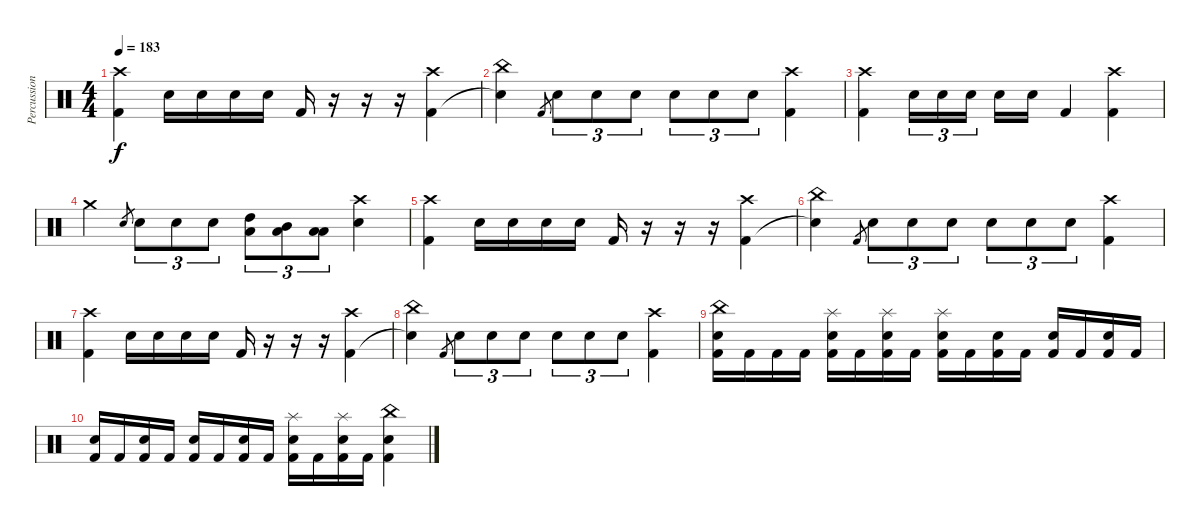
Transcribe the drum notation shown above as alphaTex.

\track ("Percussion" "Percussion") {instrument percussion}
\staff {score}
\articulation defaults
\ts (4 4)
\tempo 183
\clef neutral
\ks c
("Crash high (hit)" "Kick (hit) 2").4{dy f} "Electric Snare (hit)".16 "Electric Snare (hit)".16 "Electric Snare (hit)".16 "Electric Snare (hit)".16 "Kick (hit) 2".16 r.16 r.16 r.16 ("Crash high (hit)" "Kick (hit) 2").4 |
("China (hit)" "Snare (hit)"{t}).4 "Kick (hit) 2".8{gr} "Electric Snare (hit)".8{tu (3 2)} "Electric Snare (hit)".8{tu (3 2)} "Electric Snare (hit)".8{tu (3 2)} "Electric Snare (hit)".8{tu (3 2)} "Electric Snare (hit)".8{tu (3 2)} "Electric Snare (hit)".8{tu (3 2)} ("Crash high (hit)" "Kick (hit) 2").4 |
("Crash high (hit)" "Kick (hit) 2").4 "Electric Snare (hit)".16{tu (3 2)} "Electric Snare (hit)".16{tu (3 2)} "Electric Snare (hit)".16{tu (3 2)} "Electric Snare (hit)".16 "Electric Snare (hit)".16 "Kick (hit) 2".4 ("Crash high (hit)" "Kick (hit) 2").4 |
"Crash medium (hit)".4 "Electric Snare (hit)".8{gr} "Electric Snare (hit)".8{tu (3 2)} "Electric Snare (hit)".8{tu (3 2)} "Electric Snare (hit)".8{tu (3 2)} ("High Tom (hit)" "Low Floor Tom (hit)").8{tu (3 2)} ("Mid Tom (hit)" "Low Floor Tom (hit)").8{tu (3 2)} ("Low Tom (hit)" "Low Floor Tom (hit)").8{tu (3 2)} ("Crash high (hit)" "Electric Snare (hit)").4 |
("Crash high (hit)" "Kick (hit) 2").4 "Electric Snare (hit)".16 "Electric Snare (hit)".16 "Electric Snare (hit)".16 "Electric Snare (hit)".16 "Kick (hit) 2".16 r.16 r.16 r.16 ("Crash high (hit)" "Kick (hit) 2").4 |
("China (hit)" "Snare (hit)"{t}).4 "Kick (hit) 2".8{gr} "Electric Snare (hit)".8{tu (3 2)} "Electric Snare (hit)".8{tu (3 2)} "Electric Snare (hit)".8{tu (3 2)} "Electric Snare (hit)".8{tu (3 2)} "Electric Snare (hit)".8{tu (3 2)} "Electric Snare (hit)".8{tu (3 2)} ("Crash high (hit)" "Kick (hit) 2").4 |
("Crash high (hit)" "Kick (hit) 2").4 "Electric Snare (hit)".16 "Electric Snare (hit)".16 "Electric Snare (hit)".16 "Electric Snare (hit)".16 "Kick (hit) 2".16 r.16 r.16 r.16 ("Crash high (hit)" "Kick (hit) 2").4 |
("China (hit)" "Snare (hit)"{t}).4 "Kick (hit) 2".8{gr} "Electric Snare (hit)".8{tu (3 2)} "Electric Snare (hit)".8{tu (3 2)} "Electric Snare (hit)".8{tu (3 2)} "Electric Snare (hit)".8{tu (3 2)} "Electric Snare (hit)".8{tu (3 2)} "Electric Snare (hit)".8{tu (3 2)} ("Crash high (hit)" "Kick (hit) 2").4 |
("China (hit)" "Electric Snare (hit)" "Kick (hit) 2").16 "Kick (hit) 2".16 "Kick (hit) 2".16 "Kick (hit) 2".16 ("Splash (hit)" "Electric Snare (hit)" "Kick (hit) 2").16 "Kick (hit) 2".16 ("Splash (hit)" "Electric Snare (hit)" "Kick (hit) 2").16 "Kick (hit) 2".16 ("Splash (hit)" "Electric Snare (hit)" "Kick (hit) 2").16 "Kick (hit) 2".16 ("Electric Snare (hit)" "Kick (hit) 2").16 "Kick (hit) 2".16 ("Electric Snare (hit)" "Kick (hit) 2").16 "Kick (hit) 2".16 ("Electric Snare (hit)" "Kick (hit) 2").16 "Kick (hit) 2".16 |
("Electric Snare (hit)" "Kick (hit) 2").16 "Kick (hit) 2".16 ("Electric Snare (hit)" "Kick (hit) 2").16 "Kick (hit) 2".16 ("Electric Snare (hit)" "Kick (hit) 2").16 "Kick (hit) 2".16 ("Electric Snare (hit)" "Kick (hit) 2").16 "Kick (hit) 2".16 ("Splash (hit)" "Electric Snare (hit)" "Kick (hit) 2").16 "Kick (hit) 2".16 ("Splash (hit)" "Electric Snare (hit)" "Kick (hit) 2").16 "Kick (hit) 2".16 ("China (hit)" "Electric Snare (hit)" "Kick (hit) 2").4
